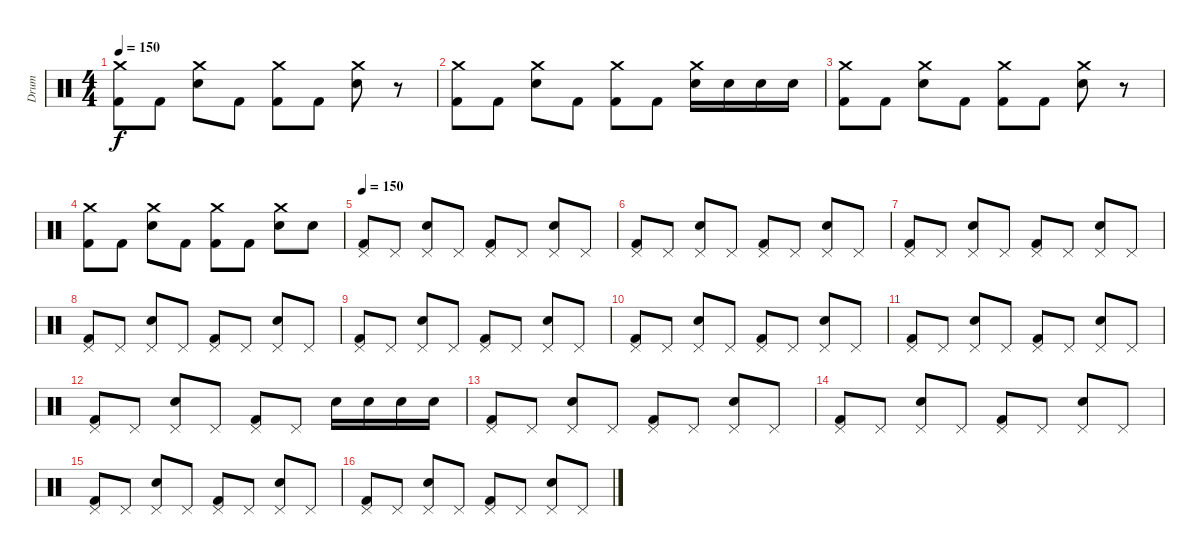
\track ("Drum" "Drum") {instrument percussion}
\staff {score}
\articulation defaults
\ts (4 4)
\tempo 150
\clef neutral
\ks c
("Crash medium (hit)" "Kick (hit) 2").8{dy f} "Kick (hit) 2".8 ("Crash medium (hit)" "Electric Snare (hit)").8 "Kick (hit) 2".8 ("Crash medium (hit)" "Kick (hit) 2").8 "Kick (hit) 2".8 ("Crash medium (hit)" "Electric Snare (hit)").8 r.8 |
("Crash medium (hit)" "Kick (hit) 2").8 "Kick (hit) 2".8 ("Crash medium (hit)" "Electric Snare (hit)").8 "Kick (hit) 2".8 ("Crash medium (hit)" "Kick (hit) 2").8 "Kick (hit) 2".8 ("Crash medium (hit)" "Electric Snare (hit)").16 "Electric Snare (hit)".16 "Electric Snare (hit)".16 "Electric Snare (hit)".16 |
("Crash medium (hit)" "Kick (hit) 2").8 "Kick (hit) 2".8 ("Crash medium (hit)" "Electric Snare (hit)").8 "Kick (hit) 2".8 ("Crash medium (hit)" "Kick (hit) 2").8 "Kick (hit) 2".8 ("Crash medium (hit)" "Electric Snare (hit)").8 r.8 |
("Crash medium (hit)" "Kick (hit) 2").8 "Kick (hit) 2".8 ("Crash medium (hit)" "Electric Snare (hit)").8 "Kick (hit) 2".8 ("Crash medium (hit)" "Kick (hit) 2").8 "Kick (hit) 2".8 ("Crash medium (hit)" "Electric Snare (hit)").8 "Electric Snare (hit)".8 |
\tempo 150
("Pedal Hi-Hat (hit)" "Kick (hit) 2").8 "Pedal Hi-Hat (hit)".8 ("Pedal Hi-Hat (hit)" "Electric Snare (hit)").8 "Pedal Hi-Hat (hit)".8 ("Pedal Hi-Hat (hit)" "Kick (hit) 2").8 "Pedal Hi-Hat (hit)".8 ("Pedal Hi-Hat (hit)" "Electric Snare (hit)").8 "Pedal Hi-Hat (hit)".8 |
("Pedal Hi-Hat (hit)" "Kick (hit) 2").8 "Pedal Hi-Hat (hit)".8 ("Pedal Hi-Hat (hit)" "Electric Snare (hit)").8 "Pedal Hi-Hat (hit)".8 ("Pedal Hi-Hat (hit)" "Kick (hit) 2").8 "Pedal Hi-Hat (hit)".8 ("Pedal Hi-Hat (hit)" "Electric Snare (hit)").8 "Pedal Hi-Hat (hit)".8 |
("Pedal Hi-Hat (hit)" "Kick (hit) 2").8 "Pedal Hi-Hat (hit)".8 ("Pedal Hi-Hat (hit)" "Electric Snare (hit)").8 "Pedal Hi-Hat (hit)".8 ("Pedal Hi-Hat (hit)" "Kick (hit) 2").8 "Pedal Hi-Hat (hit)".8 ("Pedal Hi-Hat (hit)" "Electric Snare (hit)").8 "Pedal Hi-Hat (hit)".8 |
("Pedal Hi-Hat (hit)" "Kick (hit) 2").8 "Pedal Hi-Hat (hit)".8 ("Pedal Hi-Hat (hit)" "Electric Snare (hit)").8 "Pedal Hi-Hat (hit)".8 ("Pedal Hi-Hat (hit)" "Kick (hit) 2").8 "Pedal Hi-Hat (hit)".8 ("Pedal Hi-Hat (hit)" "Electric Snare (hit)").8 "Pedal Hi-Hat (hit)".8 |
("Pedal Hi-Hat (hit)" "Kick (hit) 2").8 "Pedal Hi-Hat (hit)".8 ("Pedal Hi-Hat (hit)" "Electric Snare (hit)").8 "Pedal Hi-Hat (hit)".8 ("Pedal Hi-Hat (hit)" "Kick (hit) 2").8 "Pedal Hi-Hat (hit)".8 ("Pedal Hi-Hat (hit)" "Electric Snare (hit)").8 "Pedal Hi-Hat (hit)".8 |
("Pedal Hi-Hat (hit)" "Kick (hit) 2").8 "Pedal Hi-Hat (hit)".8 ("Pedal Hi-Hat (hit)" "Electric Snare (hit)").8 "Pedal Hi-Hat (hit)".8 ("Pedal Hi-Hat (hit)" "Kick (hit) 2").8 "Pedal Hi-Hat (hit)".8 ("Pedal Hi-Hat (hit)" "Electric Snare (hit)").8 "Pedal Hi-Hat (hit)".8 |
("Pedal Hi-Hat (hit)" "Kick (hit) 2").8 "Pedal Hi-Hat (hit)".8 ("Pedal Hi-Hat (hit)" "Electric Snare (hit)").8 "Pedal Hi-Hat (hit)".8 ("Pedal Hi-Hat (hit)" "Kick (hit) 2").8 "Pedal Hi-Hat (hit)".8 ("Pedal Hi-Hat (hit)" "Electric Snare (hit)").8 "Pedal Hi-Hat (hit)".8 |
("Pedal Hi-Hat (hit)" "Kick (hit) 2").8 "Pedal Hi-Hat (hit)".8 ("Pedal Hi-Hat (hit)" "Electric Snare (hit)").8 "Pedal Hi-Hat (hit)".8 ("Pedal Hi-Hat (hit)" "Kick (hit) 2").8 "Pedal Hi-Hat (hit)".8 "Electric Snare (hit)".16 "Electric Snare (hit)".16 "Electric Snare (hit)".16 "Electric Snare (hit)".16 |
("Pedal Hi-Hat (hit)" "Kick (hit) 2").8 "Pedal Hi-Hat (hit)".8 ("Pedal Hi-Hat (hit)" "Electric Snare (hit)").8 "Pedal Hi-Hat (hit)".8 ("Pedal Hi-Hat (hit)" "Kick (hit) 2").8 "Pedal Hi-Hat (hit)".8 ("Pedal Hi-Hat (hit)" "Electric Snare (hit)").8 "Pedal Hi-Hat (hit)".8 |
("Pedal Hi-Hat (hit)" "Kick (hit) 2").8 "Pedal Hi-Hat (hit)".8 ("Pedal Hi-Hat (hit)" "Electric Snare (hit)").8 "Pedal Hi-Hat (hit)".8 ("Pedal Hi-Hat (hit)" "Kick (hit) 2").8 "Pedal Hi-Hat (hit)".8 ("Pedal Hi-Hat (hit)" "Electric Snare (hit)").8 "Pedal Hi-Hat (hit)".8 |
("Pedal Hi-Hat (hit)" "Kick (hit) 2").8 "Pedal Hi-Hat (hit)".8 ("Pedal Hi-Hat (hit)" "Electric Snare (hit)").8 "Pedal Hi-Hat (hit)".8 ("Pedal Hi-Hat (hit)" "Kick (hit) 2").8 "Pedal Hi-Hat (hit)".8 ("Pedal Hi-Hat (hit)" "Electric Snare (hit)").8 "Pedal Hi-Hat (hit)".8 |
("Pedal Hi-Hat (hit)" "Kick (hit) 2").8 "Pedal Hi-Hat (hit)".8 ("Pedal Hi-Hat (hit)" "Electric Snare (hit)").8 "Pedal Hi-Hat (hit)".8 ("Pedal Hi-Hat (hit)" "Kick (hit) 2").8 "Pedal Hi-Hat (hit)".8 ("Pedal Hi-Hat (hit)" "Electric Snare (hit)").8 "Pedal Hi-Hat (hit)".8
